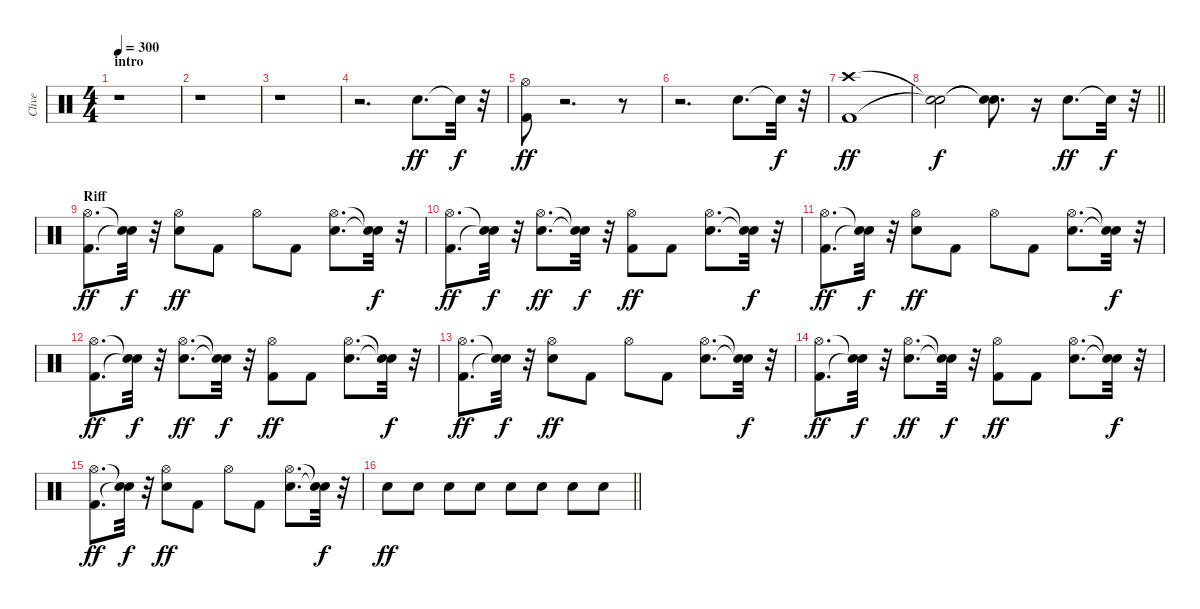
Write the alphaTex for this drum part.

\track ("Clive" "Clive") {instrument percussion}
\staff {score}
\articulation defaults
\ts (4 4)
\section ("" "intro")
\tempo 300
\clef neutral
\ks c
r.1{dy ff} |
r.1 |
r.1 |
r.2{d} "Snare (hit) 2".8{d} "Snare (hit)"{t}.32{dy f} r.32 |
("Kick (hit) 2" "Hi-Hat (open)").8{dy ff} r.2{d} r.8 |
r.2{d} "Snare (hit) 2".8{d} "Snare (hit)"{t}.32{dy f} r.32 |
("Kick (hit) 2" "Crash high (hit)").1{dy ff} |
\barLineRight lightlight
("Snare (hit)"{t} "Snare (hit)"{t}).2{dy f} ("Snare (hit)"{t} "Snare (hit)"{t}).8{d} r.16 "Snare (hit) 2".8{d dy ff} "Snare (hit)"{t}.32{dy f} r.32 |
\section ("" "Riff")
("Kick (hit) 2" "Hi-Hat (open)").8{d dy ff} ("Snare (hit)"{t} "Snare (hit)"{t}).32{dy f} r.32 ("Snare (hit) 2" "Hi-Hat (open)").8{dy ff} "Kick (hit) 2".8 "Hi-Hat (open)".8 "Kick (hit) 2".8 ("Snare (hit) 2" "Hi-Hat (open)").8{d} ("Snare (hit)"{t} "Snare (hit)"{t}).32{dy f} r.32 |
("Kick (hit) 2" "Hi-Hat (open)").8{d dy ff} ("Snare (hit)"{t} "Snare (hit)"{t}).32{dy f} r.32 ("Snare (hit) 2" "Hi-Hat (open)").8{d dy ff} ("Snare (hit)"{t} "Snare (hit)"{t}).32{dy f} r.32 ("Kick (hit) 2" "Hi-Hat (open)").8{dy ff} "Kick (hit) 2".8 ("Snare (hit) 2" "Hi-Hat (open)").8{d} ("Snare (hit)"{t} "Snare (hit)"{t}).32{dy f} r.32 |
("Kick (hit) 2" "Hi-Hat (open)").8{d dy ff} ("Snare (hit)"{t} "Snare (hit)"{t}).32{dy f} r.32 ("Snare (hit) 2" "Hi-Hat (open)").8{dy ff} "Kick (hit) 2".8 "Hi-Hat (open)".8 "Kick (hit) 2".8 ("Snare (hit) 2" "Hi-Hat (open)").8{d} ("Snare (hit)"{t} "Snare (hit)"{t}).32{dy f} r.32 |
("Kick (hit) 2" "Hi-Hat (open)").8{d dy ff} ("Snare (hit)"{t} "Snare (hit)"{t}).32{dy f} r.32 ("Snare (hit) 2" "Hi-Hat (open)").8{d dy ff} ("Snare (hit)"{t} "Snare (hit)"{t}).32{dy f} r.32 ("Kick (hit) 2" "Hi-Hat (open)").8{dy ff} "Kick (hit) 2".8 ("Snare (hit) 2" "Hi-Hat (open)").8{d} ("Snare (hit)"{t} "Snare (hit)"{t}).32{dy f} r.32 |
("Kick (hit) 2" "Hi-Hat (open)").8{d dy ff} ("Snare (hit)"{t} "Snare (hit)"{t}).32{dy f} r.32 ("Snare (hit) 2" "Hi-Hat (open)").8{dy ff} "Kick (hit) 2".8 "Hi-Hat (open)".8 "Kick (hit) 2".8 ("Snare (hit) 2" "Hi-Hat (open)").8{d} ("Snare (hit)"{t} "Snare (hit)"{t}).32{dy f} r.32 |
("Kick (hit) 2" "Hi-Hat (open)").8{d dy ff} ("Snare (hit)"{t} "Snare (hit)"{t}).32{dy f} r.32 ("Snare (hit) 2" "Hi-Hat (open)").8{d dy ff} ("Snare (hit)"{t} "Snare (hit)"{t}).32{dy f} r.32 ("Kick (hit) 2" "Hi-Hat (open)").8{dy ff} "Kick (hit) 2".8 ("Snare (hit) 2" "Hi-Hat (open)").8{d} ("Snare (hit)"{t} "Snare (hit)"{t}).32{dy f} r.32 |
("Kick (hit) 2" "Hi-Hat (open)").8{d dy ff} ("Snare (hit)"{t} "Snare (hit)"{t}).32{dy f} r.32 ("Snare (hit) 2" "Hi-Hat (open)").8{dy ff} "Kick (hit) 2".8 "Hi-Hat (open)".8 "Kick (hit) 2".8 ("Snare (hit) 2" "Hi-Hat (open)").8{d} ("Snare (hit)"{t} "Snare (hit)"{t}).32{dy f} r.32 |
\barLineRight lightlight "Snare (hit) 2".8{dy ff} "Snare (hit) 2".8 "Snare (hit) 2".8 "Snare (hit) 2".8 "Snare (hit) 2".8 "Snare (hit) 2".8 "Snare (hit) 2".8 "Snare (hit) 2".8
